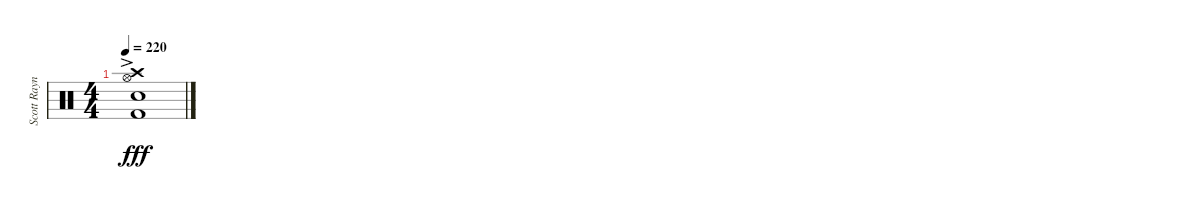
\track ("Scott Raynor - Drums" "Scott Rayn") {instrument percussion}
\staff {score}
\articulation defaults
\ts (4 4)
\tempo 220
\clef neutral
\ks c
("Crash high (hit)"{ac} "Hi-Hat (open)"{ac} "Electric Snare (hit)"{ac} "Kick (hit) 2"{ac}).1{dy fff}
